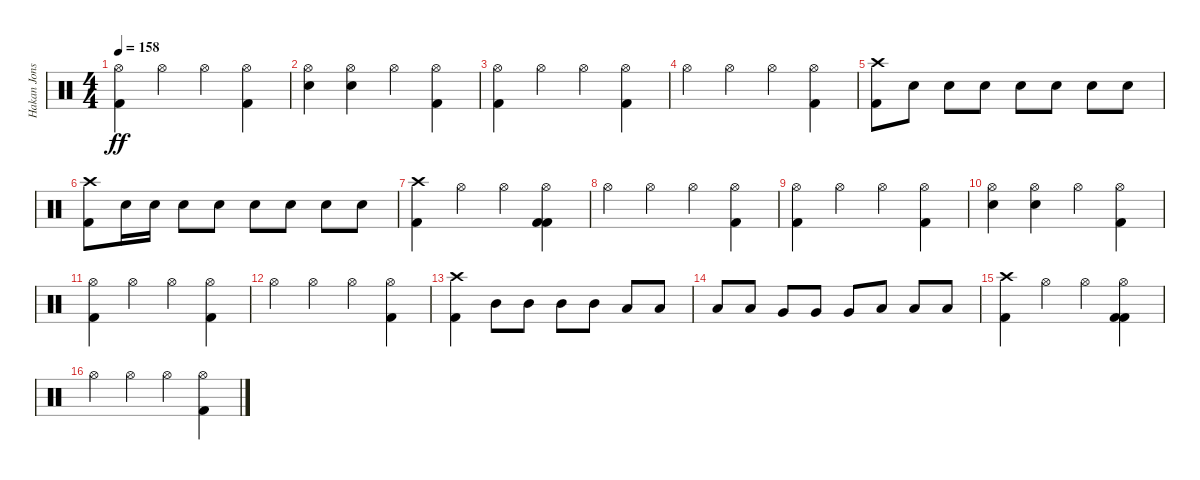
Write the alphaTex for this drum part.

\track ("Hakan Jonsson" "Hakan Jons") {instrument percussion}
\staff {score}
\articulation defaults
\ts (4 4)
\tempo 158
\clef neutral
\ks c
("Hi-Hat (open)" "Kick (hit) 2").4{dy ff} "Hi-Hat (open)".4 "Hi-Hat (open)".4 ("Hi-Hat (open)" "Kick (hit) 2").4 |
("Hi-Hat (open)" "Electric Snare (hit)").4 ("Hi-Hat (open)" "Electric Snare (hit)").4 "Hi-Hat (open)".4 ("Hi-Hat (open)" "Kick (hit) 2").4 |
("Hi-Hat (open)" "Kick (hit) 2").4 "Hi-Hat (open)".4 "Hi-Hat (open)".4 ("Hi-Hat (open)" "Kick (hit) 2").4 |
"Hi-Hat (open)".4 "Hi-Hat (open)".4 "Hi-Hat (open)".4 ("Hi-Hat (open)" "Kick (hit) 2").4 |
("Crash high (hit)" "Kick (hit) 2").8 "Electric Snare (hit)".8 "Electric Snare (hit)".8 "Electric Snare (hit)".8 "Electric Snare (hit)".8 "Electric Snare (hit)".8 "Electric Snare (hit)".8 "Electric Snare (hit)".8 |
("Crash high (hit)" "Kick (hit) 2").8 "Electric Snare (hit)".16 "Electric Snare (hit)".16 "Electric Snare (hit)".8 "Electric Snare (hit)".8 "Electric Snare (hit)".8 "Electric Snare (hit)".8 "Electric Snare (hit)".8 "Electric Snare (hit)".8 |
("Crash high (hit)" "Kick (hit) 2").4 "Hi-Hat (open)".4 "Hi-Hat (open)".4 ("Kick (hit) 2" "Hi-Hat (open)" "Kick (hit) 2").4 |
"Hi-Hat (open)".4 "Hi-Hat (open)".4 "Hi-Hat (open)".4 ("Hi-Hat (open)" "Kick (hit) 2").4 |
("Hi-Hat (open)" "Kick (hit) 2").4 "Hi-Hat (open)".4 "Hi-Hat (open)".4 ("Hi-Hat (open)" "Kick (hit) 2").4 |
("Hi-Hat (open)" "Electric Snare (hit)").4 ("Hi-Hat (open)" "Electric Snare (hit)").4 "Hi-Hat (open)".4 ("Hi-Hat (open)" "Kick (hit) 2").4 |
("Hi-Hat (open)" "Kick (hit) 2").4 "Hi-Hat (open)".4 "Hi-Hat (open)".4 ("Hi-Hat (open)" "Kick (hit) 2").4 |
"Hi-Hat (open)".4 "Hi-Hat (open)".4 "Hi-Hat (open)".4 ("Hi-Hat (open)" "Kick (hit) 2").4 |
("Crash high (hit)" "Kick (hit) 2").4 "Mid Tom (hit)".8 "Mid Tom (hit)".8 "Mid Tom (hit)".8 "Mid Tom (hit)".8 "Low Tom (hit)".8 "Low Tom (hit)".8 |
"Low Tom (hit)".8 "Low Tom (hit)".8 "Very Low Tom (hit)".8 "Very Low Tom (hit)".8 "Very Low Tom (hit)".8 "Low Floor Tom (hit)".8 "Low Floor Tom (hit)".8 "Low Floor Tom (hit)".8 |
("Crash high (hit)" "Kick (hit) 2").4 "Hi-Hat (open)".4 "Hi-Hat (open)".4 ("Kick (hit) 2" "Hi-Hat (open)" "Kick (hit) 2").4 |
"Hi-Hat (open)".4 "Hi-Hat (open)".4 "Hi-Hat (open)".4 ("Hi-Hat (open)" "Kick (hit) 2").4
